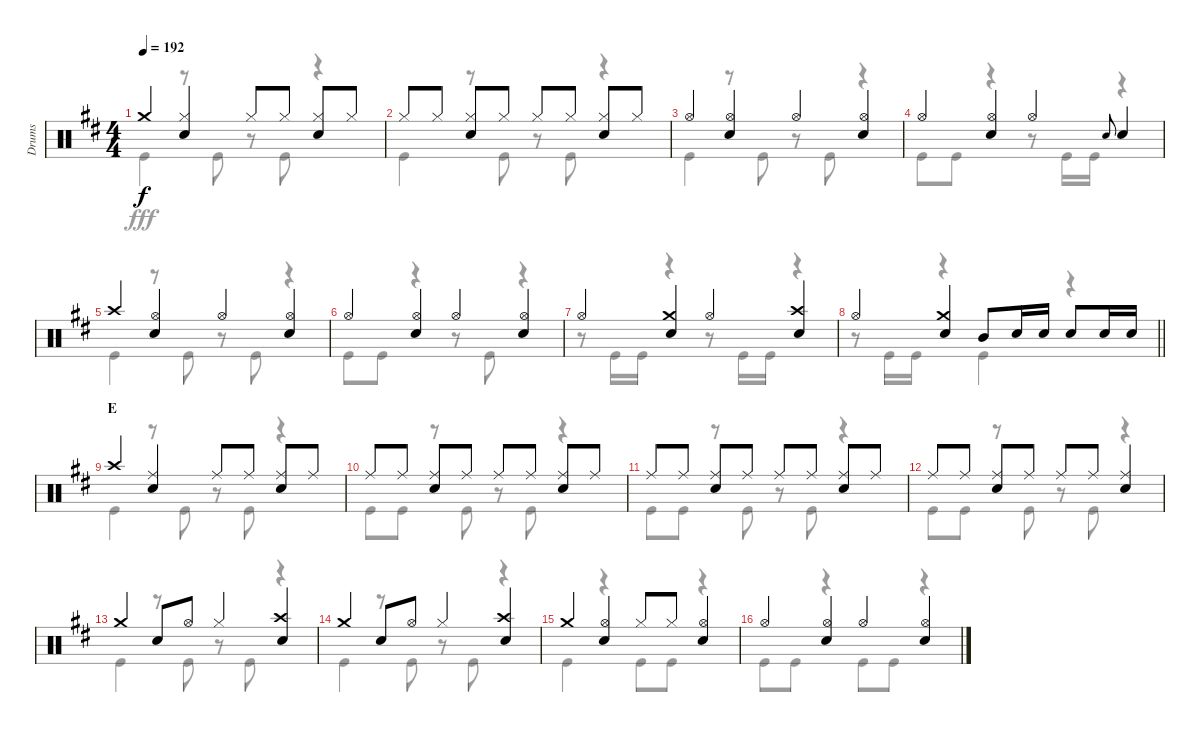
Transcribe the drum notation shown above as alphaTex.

\track ("Drums" "Drums") {instrument percussion}
\staff {score}
\articulation defaults
\voice
\ts (4 4)
\tempo 192
\clef neutral
\ks d "Crash medium (hit)".4{dy f}
("Hi-Hat (closed)" "Snare (hit) 2").4 "Hi-Hat (closed)".8 "Hi-Hat (closed)".8 ("Hi-Hat (closed)" "Snare (hit) 2").8 "Hi-Hat (closed)".8 |
"Hi-Hat (closed)".8 "Hi-Hat (closed)".8 ("Hi-Hat (closed)" "Snare (hit) 2").8 "Hi-Hat (closed)".8 "Hi-Hat (closed)".8 "Hi-Hat (closed)".8 ("Hi-Hat (closed)" "Snare (hit) 2").8 "Hi-Hat (closed)".8 |
"Hi-Hat (open)".4 ("Hi-Hat (open)" "Snare (hit) 2").4 "Hi-Hat (open)".4 ("Hi-Hat (open)" "Snare (hit) 2").4 |
"Hi-Hat (open)".4 ("Hi-Hat (open)" "Snare (hit) 2").4 "Hi-Hat (open)".4 "Snare (hit) 2".8{gr onbeat} "Snare (hit) 2".4 |
"Crash high (hit)".4 ("Hi-Hat (open)" "Snare (hit) 2").4 "Hi-Hat (open)".4 ("Hi-Hat (open)" "Snare (hit) 2").4 |
"Hi-Hat (open)".4 ("Hi-Hat (open)" "Snare (hit) 2").4 "Hi-Hat (open)".4 ("Hi-Hat (open)" "Snare (hit) 2").4 |
"Hi-Hat (open)".4 ("Crash medium (hit)" "Snare (hit) 2").4 "Hi-Hat (open)".4 ("Crash high (hit)" "Snare (hit) 2").4 |
\barLineRight lightlight "Hi-Hat (open)".4
("Crash medium (hit)" "Snare (hit) 2").4 "Mid Tom (hit)".8 "Snare (hit) 2".16 "Snare (hit) 2".16 "Snare (hit) 2".8 "Snare (hit) 2".16 "Snare (hit) 2".16 |
\section ("" "E")
"Crash high (hit)".4 ("Ride (middle)" "Snare (hit) 2").4 "Ride (middle)".8 "Ride (middle)".8 ("Ride (middle)" "Snare (hit) 2").8 "Ride (middle)".8 |
"Ride (middle)".8 "Ride (middle)".8 ("Ride (middle)" "Snare (hit) 2").8 "Ride (middle)".8 "Ride (middle)".8 "Ride (middle)".8 ("Ride (middle)" "Snare (hit) 2").8 "Ride (middle)".8 |
"Ride (middle)".8 "Ride (middle)".8 ("Ride (middle)" "Snare (hit) 2").8 "Ride (middle)".8 "Ride (middle)".8 "Ride (middle)".8 ("Ride (middle)" "Snare (hit) 2").8 "Ride (middle)".8 |
"Ride (middle)".8 "Ride (middle)".8 ("Ride (middle)" "Snare (hit) 2").8 "Ride (middle)".8 "Ride (middle)".8 "Ride (middle)".8 ("Ride (middle)" "Snare (hit) 2").4 |
"Crash medium (hit)".4 "Snare (hit) 2".8 "Hi-Hat (open)".8 "Hi-Hat (closed)".4 ("Crash high (hit)" "Snare (hit) 2").4 |
"Crash medium (hit)".4 "Snare (hit) 2".8 "Hi-Hat (open)".8 "Hi-Hat (closed)".4 ("Crash high (hit)" "Snare (hit) 2").4 |
"Crash medium (hit)".4 ("Hi-Hat (open)" "Snare (hit) 2").4 "Hi-Hat (closed)".8 "Hi-Hat (closed)".8 ("Hi-Hat (open)" "Snare (hit) 2").4 |
"Hi-Hat (open)".4 ("Hi-Hat (open)" "Snare (hit) 2").4 "Hi-Hat (open)".4 ("Hi-Hat (open)" "Snare (hit) 2").4
\voice
\clef neutral
\ottava regular
\simile none
\ks d "Kick (hit)".4{dy fff}
r.8 "Kick (hit)".8 r.8 "Kick (hit)".8 r.4 |
"Kick (hit)".4 r.8 "Kick (hit)".8 r.8 "Kick (hit)".8 r.4 |
"Kick (hit)".4 r.8 "Kick (hit)".8 r.8 "Kick (hit)".8 r.4 |
"Kick (hit)".8 "Kick (hit)".8 r.4 r.8 "Kick (hit)".16 "Kick (hit)".16 r.4 |
"Kick (hit)".4 r.8 "Kick (hit)".8 r.8 "Kick (hit)".8 r.4 |
"Kick (hit)".8 "Kick (hit)".8 r.4 r.8 "Kick (hit)".8 r.4 |
r.8 "Kick (hit)".16 "Kick (hit)".16 r.4 r.8 "Kick (hit)".16 "Kick (hit)".16 r.4 |
\barLineRight lightlight
r.8 "Kick (hit)".16 "Kick (hit)".16 r.4 "Kick (hit)".4 r.4 |
"Kick (hit)".4 r.8 "Kick (hit)".8 r.8 "Kick (hit)".8 r.4 |
"Kick (hit)".8 "Kick (hit)".8 r.8 "Kick (hit)".8 r.8 "Kick (hit)".8 r.4 |
"Kick (hit)".8 "Kick (hit)".8 r.8 "Kick (hit)".8 r.8 "Kick (hit)".8 r.4 |
"Kick (hit)".8 "Kick (hit)".8 r.8 "Kick (hit)".8 r.8 "Kick (hit)".8 r.4 |
"Kick (hit)".4 r.8 "Kick (hit)".8 r.8 "Kick (hit)".8 r.4 |
"Kick (hit)".4 r.8 "Kick (hit)".8 r.8 "Kick (hit)".8 r.4 |
"Kick (hit)".4 r.4 "Kick (hit)".8 "Kick (hit)".8 r.4 |
"Kick (hit)".8 "Kick (hit)".8 r.4 "Kick (hit)".8 "Kick (hit)".8 r.4
